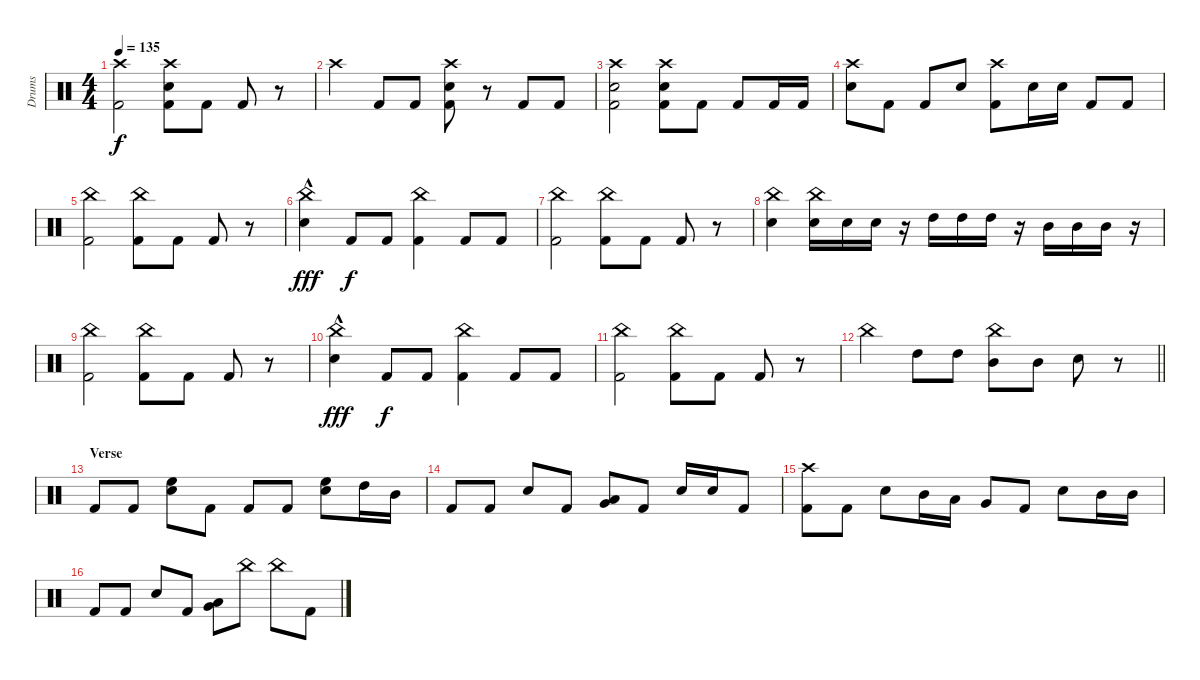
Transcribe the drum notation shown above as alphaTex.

\track ("Drums" "Drums") {instrument percussion}
\staff {score}
\articulation defaults
\ts (4 4)
\tempo 135
\clef neutral
\ks c
("Crash high (hit)" "Kick (hit) 2").2{dy f} ("Crash high (hit)" "Electric Snare (hit)" "Kick (hit) 2").8 "Kick (hit) 2".8 "Kick (hit) 2".8 r.8 |
"Crash high (hit)".4 "Kick (hit) 2".8 "Kick (hit) 2".8 ("Crash high (hit)" "Electric Snare (hit)" "Kick (hit) 2").8 r.8 "Kick (hit) 2".8 "Kick (hit) 2".8 |
("Crash high (hit)" "Electric Snare (hit)" "Kick (hit) 2").2 ("Crash high (hit)" "Electric Snare (hit)" "Kick (hit) 2").8 "Kick (hit) 2".8 "Kick (hit) 2".8 "Kick (hit) 2".16 "Kick (hit) 2".16 |
("Crash high (hit)" "Electric Snare (hit)").8 "Kick (hit) 2".8 "Kick (hit) 2".8 "Electric Snare (hit)".8 ("Crash high (hit)" "Kick (hit) 2").8 "Electric Snare (hit)".16 "Electric Snare (hit)".16 "Kick (hit) 2".8 "Kick (hit) 2".8 |
("China (hit)" "Kick (hit) 2").2 ("China (hit)" "Kick (hit) 2").8 "Kick (hit) 2".8 "Kick (hit) 2".8 r.8 |
("China (hit)" "Electric Snare (hit)"{hac}).4{dy fff} "Kick (hit) 2".8{dy f} "Kick (hit) 2".8 ("China (hit)" "Kick (hit) 2").4 "Kick (hit) 2".8 "Kick (hit) 2".8 |
("China (hit)" "Kick (hit) 2").2 ("China (hit)" "Kick (hit) 2").8 "Kick (hit) 2".8 "Kick (hit) 2".8 r.8 |
("China (hit)" "Electric Snare (hit)").4 ("China (hit)" "Electric Snare (hit)").16 "Electric Snare (hit)".16 "Electric Snare (hit)".16 r.16 "High Tom (hit)".16 "High Tom (hit)".16 "High Tom (hit)".16 r.16 "Mid Tom (hit)".16 "Mid Tom (hit)".16 "Mid Tom (hit)".16 r.16 |
("China (hit)" "Kick (hit) 2").2 ("China (hit)" "Kick (hit) 2").8 "Kick (hit) 2".8 "Kick (hit) 2".8 r.8 |
("China (hit)" "Electric Snare (hit)"{hac}).4{dy fff} "Kick (hit) 2".8{dy f} "Kick (hit) 2".8 ("China (hit)" "Kick (hit) 2").4 "Kick (hit) 2".8 "Kick (hit) 2".8 |
("China (hit)" "Kick (hit) 2").2 ("China (hit)" "Kick (hit) 2").8 "Kick (hit) 2".8 "Kick (hit) 2".8 r.8 |
\barLineRight lightlight "China (hit)".4 "High Tom (hit)".8 "High Tom (hit)".8
("China (hit)" "Mid Tom (hit)").8 "Mid Tom (hit)".8 "Electric Snare (hit)".8 r.8 |
\section ("" "Verse")
"Kick (hit) 2".8 "Kick (hit) 2".8 ("High Floor Tom (hit)" "Electric Snare (hit)").8 "Kick (hit) 2".8 "Kick (hit) 2".8 "Kick (hit) 2".8 ("High Floor Tom (hit)" "Electric Snare (hit)").8 "High Tom (hit)".16 "Mid Tom (hit)".16 |
"Kick (hit) 2".8 "Kick (hit) 2".8 "Electric Snare (hit)".8 "Kick (hit) 2".8 ("Low Tom (hit)" "Very Low Tom (hit)").8 "Kick (hit) 2".8 "Electric Snare (hit)".16 "Electric Snare (hit)".16 "Kick (hit) 2".8 |
("Crash high (hit)" "Kick (hit) 2").8 "Kick (hit) 2".8 "Electric Snare (hit)".8 "Mid Tom (hit)".16 "Low Tom (hit)".16 "Very Low Tom (hit)".8 "Kick (hit) 2".8 "Electric Snare (hit)".8 "Mid Tom (hit)".16 "Mid Tom (hit)".16 |
"Kick (hit) 2".8 "Kick (hit) 2".8 "Electric Snare (hit)".8 "Kick (hit) 2".8 ("Very Low Tom (hit)" "Low Tom (hit)").8 "China (hit)".8 "China (hit)".8 "Kick (hit) 2".8
